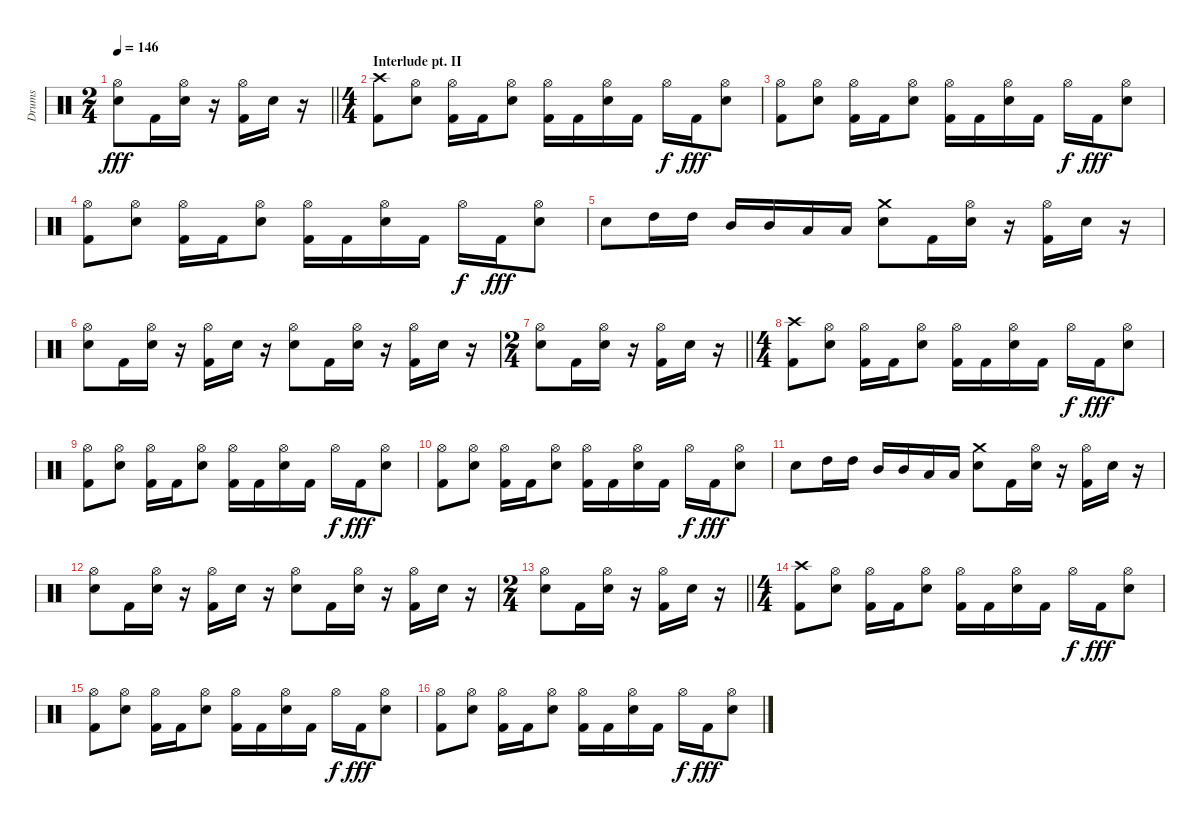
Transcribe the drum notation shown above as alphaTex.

\track ("Drums" "Drums") {instrument percussion}
\staff {score}
\articulation defaults
\ts (2 4)
\tempo 146
\clef neutral
\barLineRight lightlight
\ks c
("Hi-Hat (open)" "Snare (hit) 2").8{dy fff} "Kick (hit) 2".16 ("Hi-Hat (open)" "Snare (hit) 2").16 r.16 ("Hi-Hat (open)" "Kick (hit) 2").16 "Snare (hit) 2".16 r.16 |
\ts (4 4)
\section ("" "Interlude pt. II")
("Crash high (hit)" "Kick (hit) 2").8 ("Hi-Hat (open)" "Snare (hit) 2").8 ("Hi-Hat (open)" "Kick (hit) 2").16 "Kick (hit) 2".16 ("Hi-Hat (open)" "Snare (hit) 2").8 ("Hi-Hat (open)" "Kick (hit) 2").16 "Kick (hit) 2".16 ("Hi-Hat (open)" "Snare (hit) 2").16 "Kick (hit) 2".16 "Hi-Hat (open)".16{dy f} "Kick (hit) 2".16{dy fff} ("Hi-Hat (open)" "Snare (hit) 2").8 |
("Hi-Hat (open)" "Kick (hit) 2").8 ("Hi-Hat (open)" "Snare (hit) 2").8 ("Hi-Hat (open)" "Kick (hit) 2").16 "Kick (hit) 2".16 ("Hi-Hat (open)" "Snare (hit) 2").8 ("Hi-Hat (open)" "Kick (hit) 2").16 "Kick (hit) 2".16 ("Hi-Hat (open)" "Snare (hit) 2").16 "Kick (hit) 2".16 "Hi-Hat (open)".16{dy f} "Kick (hit) 2".16{dy fff} ("Hi-Hat (open)" "Snare (hit) 2").8 |
("Hi-Hat (open)" "Kick (hit) 2").8 ("Hi-Hat (open)" "Snare (hit) 2").8 ("Hi-Hat (open)" "Kick (hit) 2").16 "Kick (hit) 2".16 ("Hi-Hat (open)" "Snare (hit) 2").8 ("Hi-Hat (open)" "Kick (hit) 2").16 "Kick (hit) 2".16 ("Hi-Hat (open)" "Snare (hit) 2").16 "Kick (hit) 2".16 "Hi-Hat (open)".16{dy f} "Kick (hit) 2".16{dy fff} ("Hi-Hat (open)" "Snare (hit) 2").8 |
"Snare (hit) 2".8 "High Tom (hit)".16 "High Tom (hit)".16 "Mid Tom (hit)".16 "Mid Tom (hit)".16 "Low Tom (hit)".16 "Low Tom (hit)".16 ("Crash medium (hit)" "Snare (hit) 2").8 "Kick (hit) 2".16 ("Hi-Hat (open)" "Snare (hit) 2").16 r.16 ("Hi-Hat (open)" "Kick (hit) 2").16 "Snare (hit) 2".16 r.16 |
("Hi-Hat (open)" "Snare (hit) 2").8 "Kick (hit) 2".16 ("Hi-Hat (open)" "Snare (hit) 2").16 r.16 ("Hi-Hat (open)" "Kick (hit) 2").16 "Snare (hit) 2".16 r.16 ("Hi-Hat (open)" "Snare (hit) 2").8 "Kick (hit) 2".16 ("Hi-Hat (open)" "Snare (hit) 2").16 r.16 ("Hi-Hat (open)" "Kick (hit) 2").16 "Snare (hit) 2".16 r.16 |
\ts (2 4)
\barLineRight lightlight
("Hi-Hat (open)" "Snare (hit) 2").8 "Kick (hit) 2".16 ("Hi-Hat (open)" "Snare (hit) 2").16 r.16 ("Hi-Hat (open)" "Kick (hit) 2").16 "Snare (hit) 2".16 r.16 |
\ts (4 4)
("Crash high (hit)" "Kick (hit) 2").8 ("Hi-Hat (open)" "Snare (hit) 2").8 ("Hi-Hat (open)" "Kick (hit) 2").16 "Kick (hit) 2".16 ("Hi-Hat (open)" "Snare (hit) 2").8 ("Hi-Hat (open)" "Kick (hit) 2").16 "Kick (hit) 2".16 ("Hi-Hat (open)" "Snare (hit) 2").16 "Kick (hit) 2".16 "Hi-Hat (open)".16{dy f} "Kick (hit) 2".16{dy fff} ("Hi-Hat (open)" "Snare (hit) 2").8 |
("Hi-Hat (open)" "Kick (hit) 2").8 ("Hi-Hat (open)" "Snare (hit) 2").8 ("Hi-Hat (open)" "Kick (hit) 2").16 "Kick (hit) 2".16 ("Hi-Hat (open)" "Snare (hit) 2").8 ("Hi-Hat (open)" "Kick (hit) 2").16 "Kick (hit) 2".16 ("Hi-Hat (open)" "Snare (hit) 2").16 "Kick (hit) 2".16 "Hi-Hat (open)".16{dy f} "Kick (hit) 2".16{dy fff} ("Hi-Hat (open)" "Snare (hit) 2").8 |
("Hi-Hat (open)" "Kick (hit) 2").8 ("Hi-Hat (open)" "Snare (hit) 2").8 ("Hi-Hat (open)" "Kick (hit) 2").16 "Kick (hit) 2".16 ("Hi-Hat (open)" "Snare (hit) 2").8 ("Hi-Hat (open)" "Kick (hit) 2").16 "Kick (hit) 2".16 ("Hi-Hat (open)" "Snare (hit) 2").16 "Kick (hit) 2".16 "Hi-Hat (open)".16{dy f} "Kick (hit) 2".16{dy fff} ("Hi-Hat (open)" "Snare (hit) 2").8 |
"Snare (hit) 2".8 "High Tom (hit)".16 "High Tom (hit)".16 "Mid Tom (hit)".16 "Mid Tom (hit)".16 "Low Tom (hit)".16 "Low Tom (hit)".16 ("Crash medium (hit)" "Snare (hit) 2").8 "Kick (hit) 2".16 ("Hi-Hat (open)" "Snare (hit) 2").16 r.16 ("Hi-Hat (open)" "Kick (hit) 2").16 "Snare (hit) 2".16 r.16 |
("Hi-Hat (open)" "Snare (hit) 2").8 "Kick (hit) 2".16 ("Hi-Hat (open)" "Snare (hit) 2").16 r.16 ("Hi-Hat (open)" "Kick (hit) 2").16 "Snare (hit) 2".16 r.16 ("Hi-Hat (open)" "Snare (hit) 2").8 "Kick (hit) 2".16 ("Hi-Hat (open)" "Snare (hit) 2").16 r.16 ("Hi-Hat (open)" "Kick (hit) 2").16 "Snare (hit) 2".16 r.16 |
\ts (2 4)
\barLineRight lightlight
("Hi-Hat (open)" "Snare (hit) 2").8 "Kick (hit) 2".16 ("Hi-Hat (open)" "Snare (hit) 2").16 r.16 ("Hi-Hat (open)" "Kick (hit) 2").16 "Snare (hit) 2".16 r.16 |
\ts (4 4)
("Crash high (hit)" "Kick (hit) 2").8 ("Hi-Hat (open)" "Snare (hit) 2").8 ("Hi-Hat (open)" "Kick (hit) 2").16 "Kick (hit) 2".16 ("Hi-Hat (open)" "Snare (hit) 2").8 ("Hi-Hat (open)" "Kick (hit) 2").16 "Kick (hit) 2".16 ("Hi-Hat (open)" "Snare (hit) 2").16 "Kick (hit) 2".16 "Hi-Hat (open)".16{dy f} "Kick (hit) 2".16{dy fff} ("Hi-Hat (open)" "Snare (hit) 2").8 |
("Hi-Hat (open)" "Kick (hit) 2").8 ("Hi-Hat (open)" "Snare (hit) 2").8 ("Hi-Hat (open)" "Kick (hit) 2").16 "Kick (hit) 2".16 ("Hi-Hat (open)" "Snare (hit) 2").8 ("Hi-Hat (open)" "Kick (hit) 2").16 "Kick (hit) 2".16 ("Hi-Hat (open)" "Snare (hit) 2").16 "Kick (hit) 2".16 "Hi-Hat (open)".16{dy f} "Kick (hit) 2".16{dy fff} ("Hi-Hat (open)" "Snare (hit) 2").8 |
("Hi-Hat (open)" "Kick (hit) 2").8 ("Hi-Hat (open)" "Snare (hit) 2").8 ("Hi-Hat (open)" "Kick (hit) 2").16 "Kick (hit) 2".16 ("Hi-Hat (open)" "Snare (hit) 2").8 ("Hi-Hat (open)" "Kick (hit) 2").16 "Kick (hit) 2".16 ("Hi-Hat (open)" "Snare (hit) 2").16 "Kick (hit) 2".16 "Hi-Hat (open)".16{dy f} "Kick (hit) 2".16{dy fff} ("Hi-Hat (open)" "Snare (hit) 2").8
